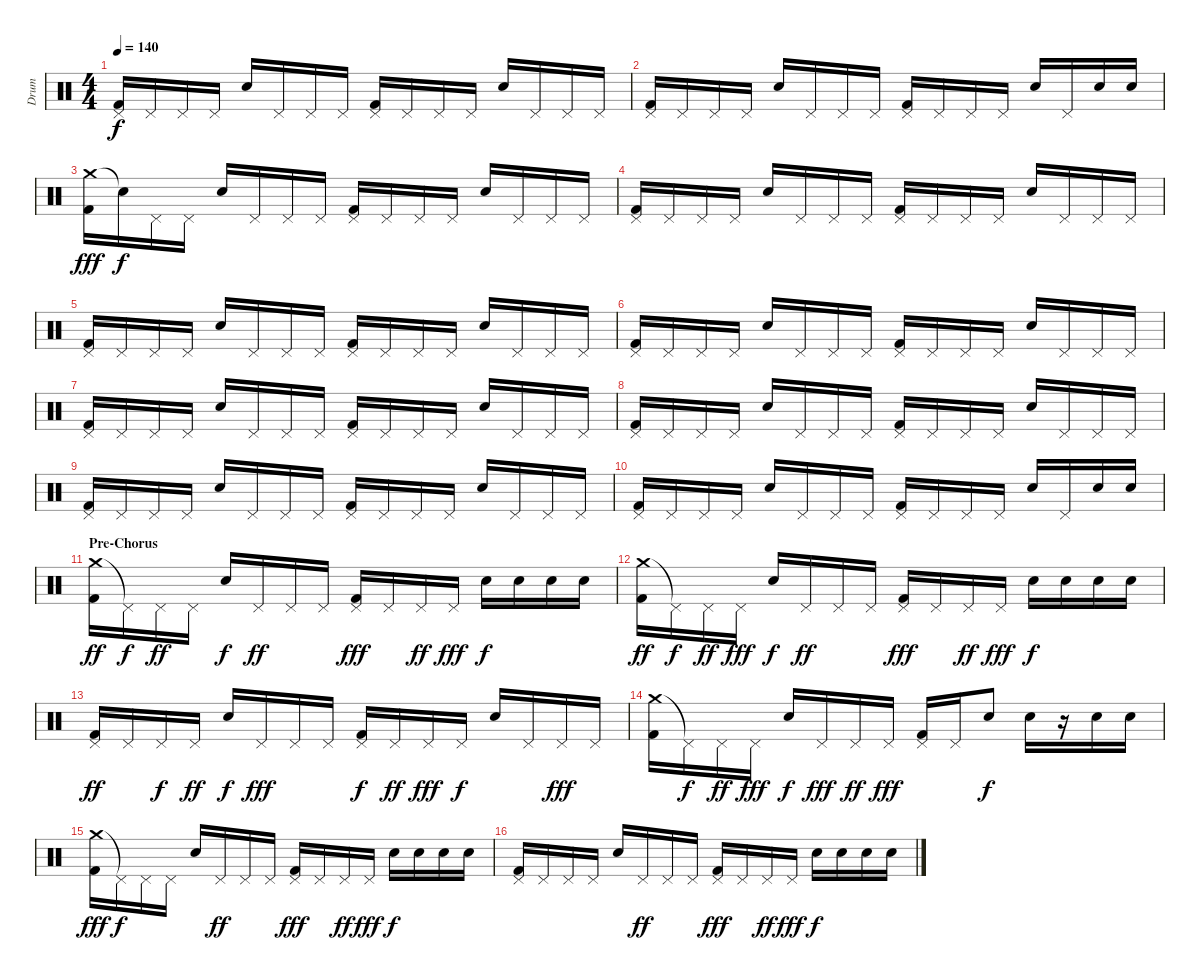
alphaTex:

\track ("Drum" "Drum") {instrument percussion}
\staff {score}
\articulation defaults
\ts (4 4)
\tempo 140
\clef neutral
\ks c
("Pedal Hi-Hat (hit)" "Kick (hit) 2").16{dy f} "Pedal Hi-Hat (hit)".16 "Pedal Hi-Hat (hit)".16 "Pedal Hi-Hat (hit)".16 "Snare (hit) 2".16 "Pedal Hi-Hat (hit)".16 "Pedal Hi-Hat (hit)".16 "Pedal Hi-Hat (hit)".16 ("Pedal Hi-Hat (hit)" "Kick (hit) 2").16 "Pedal Hi-Hat (hit)".16 "Pedal Hi-Hat (hit)".16 "Pedal Hi-Hat (hit)".16 "Snare (hit) 2".16 "Pedal Hi-Hat (hit)".16 "Pedal Hi-Hat (hit)".16 "Pedal Hi-Hat (hit)".16 |
("Pedal Hi-Hat (hit)" "Kick (hit) 2").16 "Pedal Hi-Hat (hit)".16 "Pedal Hi-Hat (hit)".16 "Pedal Hi-Hat (hit)".16 "Snare (hit) 2".16 "Pedal Hi-Hat (hit)".16 "Pedal Hi-Hat (hit)".16 "Pedal Hi-Hat (hit)".16 ("Pedal Hi-Hat (hit)" "Kick (hit) 2").16 "Pedal Hi-Hat (hit)".16 "Pedal Hi-Hat (hit)".16 "Pedal Hi-Hat (hit)".16 "Snare (hit) 2".16 "Pedal Hi-Hat (hit)".16 "Snare (hit) 2".16 "Snare (hit) 2".16 |
("Crash medium (hit)" "Kick (hit) 2").16{dy fff} "Snare (hit)"{t}.16{dy f} "Pedal Hi-Hat (hit)".16 "Pedal Hi-Hat (hit)".16 "Snare (hit) 2".16 "Pedal Hi-Hat (hit)".16 "Pedal Hi-Hat (hit)".16 "Pedal Hi-Hat (hit)".16 ("Pedal Hi-Hat (hit)" "Kick (hit) 2").16 "Pedal Hi-Hat (hit)".16 "Pedal Hi-Hat (hit)".16 "Pedal Hi-Hat (hit)".16 "Snare (hit) 2".16 "Pedal Hi-Hat (hit)".16 "Pedal Hi-Hat (hit)".16 "Pedal Hi-Hat (hit)".16 |
("Pedal Hi-Hat (hit)" "Kick (hit) 2").16 "Pedal Hi-Hat (hit)".16 "Pedal Hi-Hat (hit)".16 "Pedal Hi-Hat (hit)".16 "Snare (hit) 2".16 "Pedal Hi-Hat (hit)".16 "Pedal Hi-Hat (hit)".16 "Pedal Hi-Hat (hit)".16 ("Pedal Hi-Hat (hit)" "Kick (hit) 2").16 "Pedal Hi-Hat (hit)".16 "Pedal Hi-Hat (hit)".16 "Pedal Hi-Hat (hit)".16 "Snare (hit) 2".16 "Pedal Hi-Hat (hit)".16 "Pedal Hi-Hat (hit)".16 "Pedal Hi-Hat (hit)".16 |
("Pedal Hi-Hat (hit)" "Kick (hit) 2").16 "Pedal Hi-Hat (hit)".16 "Pedal Hi-Hat (hit)".16 "Pedal Hi-Hat (hit)".16 "Snare (hit) 2".16 "Pedal Hi-Hat (hit)".16 "Pedal Hi-Hat (hit)".16 "Pedal Hi-Hat (hit)".16 ("Pedal Hi-Hat (hit)" "Kick (hit) 2").16 "Pedal Hi-Hat (hit)".16 "Pedal Hi-Hat (hit)".16 "Pedal Hi-Hat (hit)".16 "Snare (hit) 2".16 "Pedal Hi-Hat (hit)".16 "Pedal Hi-Hat (hit)".16 "Pedal Hi-Hat (hit)".16 |
("Pedal Hi-Hat (hit)" "Kick (hit) 2").16 "Pedal Hi-Hat (hit)".16 "Pedal Hi-Hat (hit)".16 "Pedal Hi-Hat (hit)".16 "Snare (hit) 2".16 "Pedal Hi-Hat (hit)".16 "Pedal Hi-Hat (hit)".16 "Pedal Hi-Hat (hit)".16 ("Pedal Hi-Hat (hit)" "Kick (hit) 2").16 "Pedal Hi-Hat (hit)".16 "Pedal Hi-Hat (hit)".16 "Pedal Hi-Hat (hit)".16 "Snare (hit) 2".16 "Pedal Hi-Hat (hit)".16 "Pedal Hi-Hat (hit)".16 "Pedal Hi-Hat (hit)".16 |
("Pedal Hi-Hat (hit)" "Kick (hit) 2").16 "Pedal Hi-Hat (hit)".16 "Pedal Hi-Hat (hit)".16 "Pedal Hi-Hat (hit)".16 "Snare (hit) 2".16 "Pedal Hi-Hat (hit)".16 "Pedal Hi-Hat (hit)".16 "Pedal Hi-Hat (hit)".16 ("Pedal Hi-Hat (hit)" "Kick (hit) 2").16 "Pedal Hi-Hat (hit)".16 "Pedal Hi-Hat (hit)".16 "Pedal Hi-Hat (hit)".16 "Snare (hit) 2".16 "Pedal Hi-Hat (hit)".16 "Pedal Hi-Hat (hit)".16 "Pedal Hi-Hat (hit)".16 |
("Pedal Hi-Hat (hit)" "Kick (hit) 2").16 "Pedal Hi-Hat (hit)".16 "Pedal Hi-Hat (hit)".16 "Pedal Hi-Hat (hit)".16 "Snare (hit) 2".16 "Pedal Hi-Hat (hit)".16 "Pedal Hi-Hat (hit)".16 "Pedal Hi-Hat (hit)".16 ("Pedal Hi-Hat (hit)" "Kick (hit) 2").16 "Pedal Hi-Hat (hit)".16 "Pedal Hi-Hat (hit)".16 "Pedal Hi-Hat (hit)".16 "Snare (hit) 2".16 "Pedal Hi-Hat (hit)".16 "Pedal Hi-Hat (hit)".16 "Pedal Hi-Hat (hit)".16 |
("Pedal Hi-Hat (hit)" "Kick (hit) 2").16 "Pedal Hi-Hat (hit)".16 "Pedal Hi-Hat (hit)".16 "Pedal Hi-Hat (hit)".16 "Snare (hit) 2".16 "Pedal Hi-Hat (hit)".16 "Pedal Hi-Hat (hit)".16 "Pedal Hi-Hat (hit)".16 ("Pedal Hi-Hat (hit)" "Kick (hit) 2").16 "Pedal Hi-Hat (hit)".16 "Pedal Hi-Hat (hit)".16 "Pedal Hi-Hat (hit)".16 "Snare (hit) 2".16 "Pedal Hi-Hat (hit)".16 "Pedal Hi-Hat (hit)".16 "Pedal Hi-Hat (hit)".16 |
("Pedal Hi-Hat (hit)" "Kick (hit) 2").16 "Pedal Hi-Hat (hit)".16 "Pedal Hi-Hat (hit)".16 "Pedal Hi-Hat (hit)".16 "Snare (hit) 2".16 "Pedal Hi-Hat (hit)".16 "Pedal Hi-Hat (hit)".16 "Pedal Hi-Hat (hit)".16 ("Pedal Hi-Hat (hit)" "Kick (hit) 2").16 "Pedal Hi-Hat (hit)".16 "Pedal Hi-Hat (hit)".16 "Pedal Hi-Hat (hit)".16 "Snare (hit) 2".16 "Pedal Hi-Hat (hit)".16 "Snare (hit) 2".16 "Snare (hit) 2".16 |
\section ("" "Pre-Chorus")
("Crash medium (hit)" "Kick (hit) 2").16{dy ff} "Pedal Hi-Hat (hit)"{t}.16{dy f} "Pedal Hi-Hat (hit)".16{dy ff} "Pedal Hi-Hat (hit)".16 "Snare (hit) 2".16{dy f} "Pedal Hi-Hat (hit)".16{dy ff} "Pedal Hi-Hat (hit)".16 "Pedal Hi-Hat (hit)".16 ("Pedal Hi-Hat (hit)" "Kick (hit) 2").16{dy fff} "Pedal Hi-Hat (hit)".16 "Pedal Hi-Hat (hit)".16{dy ff} "Pedal Hi-Hat (hit)".16{dy fff} "Snare (hit) 2".16{dy f} "Snare (hit) 2".16 "Snare (hit) 2".16 "Snare (hit) 2".16 |
("Crash medium (hit)" "Kick (hit) 2").16{dy ff} "Pedal Hi-Hat (hit)"{t}.16{dy f} "Pedal Hi-Hat (hit)".16{dy ff} "Pedal Hi-Hat (hit)".16{dy fff} "Snare (hit) 2".16{dy f} "Pedal Hi-Hat (hit)".16{dy ff} "Pedal Hi-Hat (hit)".16 "Pedal Hi-Hat (hit)".16 ("Pedal Hi-Hat (hit)" "Kick (hit) 2").16{dy fff} "Pedal Hi-Hat (hit)".16 "Pedal Hi-Hat (hit)".16{dy ff} "Pedal Hi-Hat (hit)".16{dy fff} "Snare (hit) 2".16{dy f} "Snare (hit) 2".16 "Snare (hit) 2".16 "Snare (hit) 2".16 |
("Pedal Hi-Hat (hit)" "Kick (hit) 2").16{dy ff} "Pedal Hi-Hat (hit)".16 "Pedal Hi-Hat (hit)".16{dy f} "Pedal Hi-Hat (hit)".16{dy ff} "Snare (hit) 2".16{dy f} "Pedal Hi-Hat (hit)".16{dy fff} "Pedal Hi-Hat (hit)".16 "Pedal Hi-Hat (hit)".16 ("Pedal Hi-Hat (hit)" "Kick (hit) 2").16{dy f} "Pedal Hi-Hat (hit)".16{dy ff} "Pedal Hi-Hat (hit)".16{dy fff} "Pedal Hi-Hat (hit)".16{dy f} "Snare (hit) 2".16 "Pedal Hi-Hat (hit)".16 "Pedal Hi-Hat (hit)".16{dy fff} "Pedal Hi-Hat (hit)".16 |
("Crash medium (hit)" "Kick (hit) 2").16 "Pedal Hi-Hat (hit)"{t}.16{dy f} "Pedal Hi-Hat (hit)".16{dy ff} "Pedal Hi-Hat (hit)".16{dy fff} "Snare (hit) 2".16{dy f} "Pedal Hi-Hat (hit)".16{dy fff} "Pedal Hi-Hat (hit)".16{dy ff} "Pedal Hi-Hat (hit)".16{dy fff} ("Pedal Hi-Hat (hit)" "Kick (hit) 2").16 "Pedal Hi-Hat (hit)".16 "Snare (hit) 2".8{dy f} "Snare (hit) 2".16 r.16 "Snare (hit) 2".16 "Snare (hit) 2".16 |
("Crash medium (hit)" "Kick (hit) 2").16{dy fff} "Pedal Hi-Hat (hit)"{t}.16{dy f} "Pedal Hi-Hat (hit)".16 "Pedal Hi-Hat (hit)".16 "Snare (hit) 2".16 "Pedal Hi-Hat (hit)".16{dy ff} "Pedal Hi-Hat (hit)".16 "Pedal Hi-Hat (hit)".16 ("Pedal Hi-Hat (hit)" "Kick (hit) 2").16{dy fff} "Pedal Hi-Hat (hit)".16 "Pedal Hi-Hat (hit)".16{dy ff} "Pedal Hi-Hat (hit)".16{dy fff} "Snare (hit) 2".16{dy f} "Snare (hit) 2".16 "Snare (hit) 2".16 "Snare (hit) 2".16 |
("Pedal Hi-Hat (hit)" "Kick (hit) 2").16 "Pedal Hi-Hat (hit)".16 "Pedal Hi-Hat (hit)".16 "Pedal Hi-Hat (hit)".16 "Snare (hit) 2".16 "Pedal Hi-Hat (hit)".16{dy ff} "Pedal Hi-Hat (hit)".16 "Pedal Hi-Hat (hit)".16 ("Pedal Hi-Hat (hit)" "Kick (hit) 2").16{dy fff} "Pedal Hi-Hat (hit)".16 "Pedal Hi-Hat (hit)".16{dy ff} "Pedal Hi-Hat (hit)".16{dy fff} "Snare (hit) 2".16{dy f} "Snare (hit) 2".16 "Snare (hit) 2".16 "Snare (hit) 2".16
